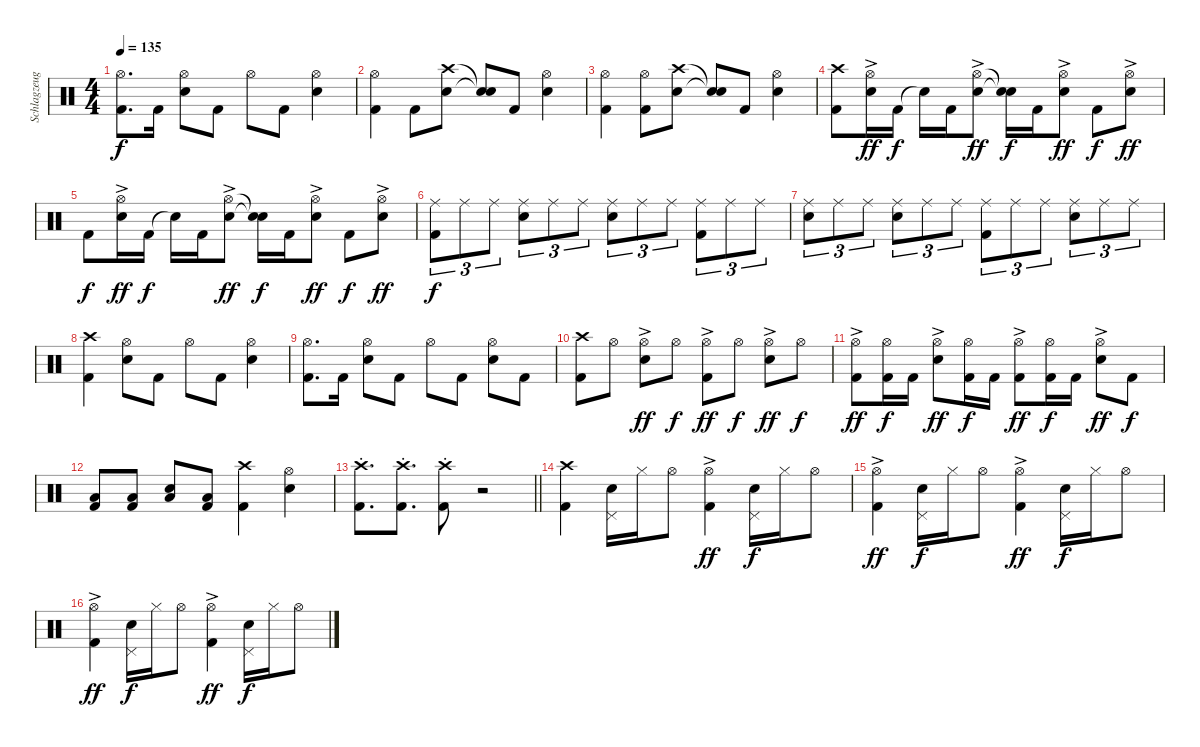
\track ("Schlagzeug" "Schlagzeug") {instrument percussion}
\staff {score}
\articulation defaults
\ts (4 4)
\tempo 135
\clef neutral
\ks c
("Hi-Hat (open)" "Kick (hit) 2").8{d dy f} "Kick (hit) 2".16 ("Hi-Hat (open)" "Electric Snare (hit)").8 "Kick (hit) 2".8 "Hi-Hat (open)".8 "Kick (hit) 2".8 ("Hi-Hat (open)" "Electric Snare (hit)").4 |
("Hi-Hat (open)" "Kick (hit) 2").4 "Kick (hit) 2".8 ("Crash high (hit)" "Electric Snare (hit)").8 ("Snare (hit)"{t} "Snare (hit)"{t}).8 "Kick (hit) 2".8 ("Hi-Hat (open)" "Electric Snare (hit)").4 |
("Hi-Hat (open)" "Kick (hit) 2").4 ("Hi-Hat (open)" "Kick (hit) 2").8 ("Crash high (hit)" "Electric Snare (hit)").8 ("Snare (hit)"{t} "Snare (hit)"{t}).8 "Kick (hit) 2".8 ("Hi-Hat (open)" "Electric Snare (hit)").4 |
("Crash high (hit)" "Kick (hit) 2").8 ("Hi-Hat (open)" "Electric Snare (hit)"{ac}).16{dy ff} "Kick (hit) 2".16{dy f} "Snare (hit)"{t}.16 "Kick (hit) 2".16 ("Hi-Hat (open)" "Electric Snare (hit)"{ac}).8{dy ff} ("Snare (hit)"{t} "Snare (hit)"{t}).16{dy f} "Kick (hit) 2".16 ("Hi-Hat (open)" "Electric Snare (hit)"{ac}).8{dy ff} "Kick (hit) 2".8{dy f} ("Hi-Hat (open)" "Electric Snare (hit)"{ac}).8{dy ff} |
"Kick (hit) 2".8{dy f} ("Hi-Hat (open)" "Electric Snare (hit)"{ac}).16{dy ff} "Kick (hit) 2".16{dy f} "Snare (hit)"{t}.16 "Kick (hit) 2".16 ("Hi-Hat (open)" "Electric Snare (hit)"{ac}).8{dy ff} ("Snare (hit)"{t} "Snare (hit)"{t}).16{dy f} "Kick (hit) 2".16 ("Hi-Hat (open)" "Electric Snare (hit)"{ac}).8{dy ff} "Kick (hit) 2".8{dy f} ("Hi-Hat (open)" "Electric Snare (hit)"{ac}).8{dy ff} |
("Ride (middle)" "Kick (hit) 2").8{tu (3 2) dy f} "Ride (middle)".8{tu (3 2)} "Ride (middle)".8{tu (3 2)} ("Ride (middle)" "Electric Snare (hit)").8{tu (3 2)} "Ride (middle)".8{tu (3 2)} "Ride (middle)".8{tu (3 2)} ("Ride (middle)" "Electric Snare (hit)").8{tu (3 2)} "Ride (middle)".8{tu (3 2)} "Ride (middle)".8{tu (3 2)} ("Ride (middle)" "Kick (hit) 2").8{tu (3 2)} "Ride (middle)".8{tu (3 2)} "Ride (middle)".8{tu (3 2)} |
("Ride (middle)" "Electric Snare (hit)").8{tu (3 2)} "Ride (middle)".8{tu (3 2)} "Ride (middle)".8{tu (3 2)} ("Ride (middle)" "Electric Snare (hit)").8{tu (3 2)} "Ride (middle)".8{tu (3 2)} "Ride (middle)".8{tu (3 2)} ("Ride (middle)" "Kick (hit) 2").8{tu (3 2)} "Ride (middle)".8{tu (3 2)} "Ride (middle)".8{tu (3 2)} ("Ride (middle)" "Electric Snare (hit)").8{tu (3 2)} "Ride (middle)".8{tu (3 2)} "Ride (middle)".8{tu (3 2)} |
("Crash high (hit)" "Kick (hit) 2").4 ("Hi-Hat (open)" "Electric Snare (hit)").8 "Kick (hit) 2".8 "Hi-Hat (open)".8 "Kick (hit) 2".8 ("Hi-Hat (open)" "Electric Snare (hit)").4 |
("Hi-Hat (open)" "Kick (hit) 2").8{d} "Kick (hit) 2".16 ("Hi-Hat (open)" "Electric Snare (hit)").8 "Kick (hit) 2".8 "Hi-Hat (open)".8 "Kick (hit) 2".8 ("Hi-Hat (open)" "Electric Snare (hit)").8 "Kick (hit) 2".8 |
("Crash high (hit)" "Kick (hit) 2").8 "Hi-Hat (open)".8 ("Hi-Hat (open)"{ac} "Electric Snare (hit)").8{dy ff} "Hi-Hat (open)".8{dy f} ("Hi-Hat (open)"{ac} "Kick (hit) 2").8{dy ff} "Hi-Hat (open)".8{dy f} ("Hi-Hat (open)"{ac} "Electric Snare (hit)").8{dy ff} "Hi-Hat (open)".8{dy f} |
("Hi-Hat (open)"{ac} "Kick (hit) 2").8{dy ff} ("Hi-Hat (open)" "Kick (hit) 2").16{dy f} "Kick (hit) 2".16 ("Hi-Hat (open)"{ac} "Electric Snare (hit)").8{dy ff} ("Hi-Hat (open)" "Kick (hit) 2").16{dy f} "Kick (hit) 2".16 ("Hi-Hat (open)"{ac} "Kick (hit) 2").8{dy ff} ("Hi-Hat (open)" "Kick (hit) 2").16{dy f} "Kick (hit) 2".16 ("Hi-Hat (open)"{ac} "Electric Snare (hit)").8{dy ff} "Kick (hit) 2".8{dy f} |
("Low Floor Tom (hit)" "Kick (hit) 2").8 ("Low Floor Tom (hit)" "Kick (hit) 2").8 ("Low Floor Tom (hit)" "Electric Snare (hit)").8 ("Low Floor Tom (hit)" "Kick (hit) 2").8 ("Crash high (hit)" "Kick (hit) 2").4 ("Hi-Hat (open)" "Electric Snare (hit)").4 |
\barLineRight lightlight
("Crash high (hit)" "Kick (hit) 2"{st}).8{d} ("Crash high (hit)" "Kick (hit) 2"{st}).8{d} ("Crash high (hit)" "Kick (hit) 2"{st}).8 r.2 |
("Crash high (hit)" "Kick (hit) 2").4 ("Electric Snare (hit)" "Pedal Hi-Hat (hit)").16 "Hi-Hat (closed)".16 "Hi-Hat (open)".8 ("Hi-Hat (open)"{ac} "Kick (hit) 2").4{dy ff} ("Electric Snare (hit)" "Pedal Hi-Hat (hit)").16{dy f} "Hi-Hat (closed)".16 "Hi-Hat (open)".8 |
("Hi-Hat (open)"{ac} "Kick (hit) 2").4{dy ff} ("Electric Snare (hit)" "Pedal Hi-Hat (hit)").16{dy f} "Hi-Hat (closed)".16 "Hi-Hat (open)".8 ("Hi-Hat (open)"{ac} "Kick (hit) 2").4{dy ff} ("Electric Snare (hit)" "Pedal Hi-Hat (hit)").16{dy f} "Hi-Hat (closed)".16 "Hi-Hat (open)".8 |
("Hi-Hat (open)"{ac} "Kick (hit) 2").4{dy ff} ("Electric Snare (hit)" "Pedal Hi-Hat (hit)").16{dy f} "Hi-Hat (closed)".16 "Hi-Hat (open)".8 ("Hi-Hat (open)"{ac} "Kick (hit) 2").4{dy ff} ("Electric Snare (hit)" "Pedal Hi-Hat (hit)").16{dy f} "Hi-Hat (closed)".16 "Hi-Hat (open)".8
